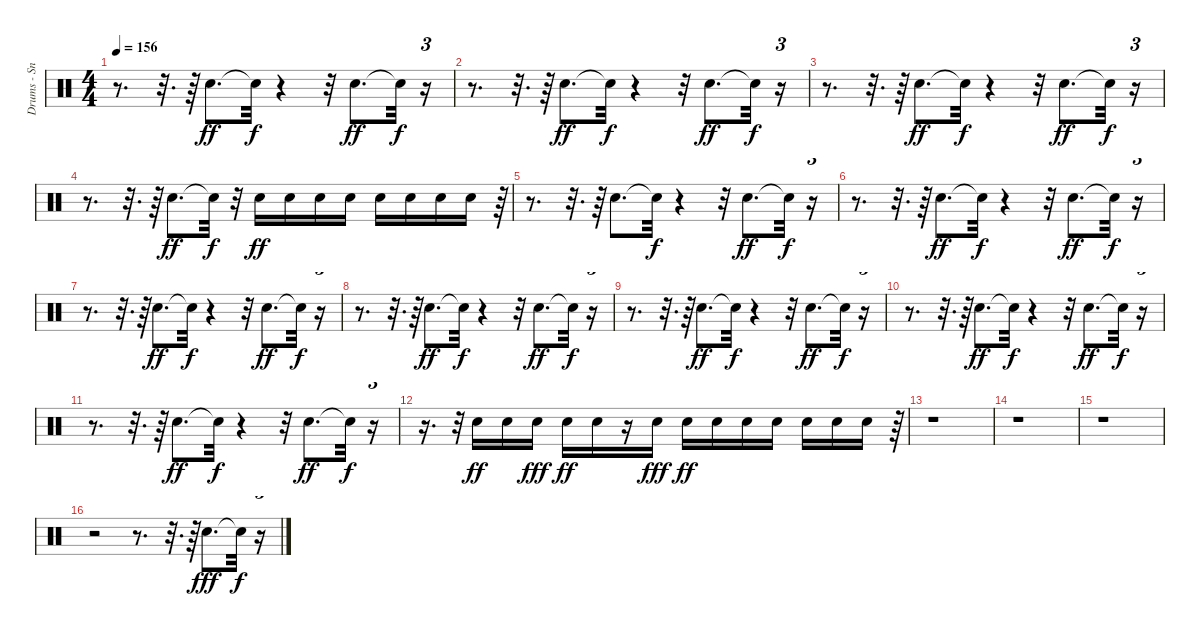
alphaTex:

\track ("Drums - Snare/Toms" "Drums - Sn") {instrument percussion}
\staff {score}
\articulation defaults
\ts (4 4)
\tempo 156
\clef neutral
\ks c
r.8{d dy ff} r.32{d} r.64 "Electric Snare (hit)".8{d} "Snare (hit)"{t}.32{dy f} r.4 r.32 "Electric Snare (hit)".8{d dy ff} "Snare (hit)"{t}.32{dy f} r.16{tu (3 2)} |
r.8{d} r.32{d} r.64 "Electric Snare (hit)".8{d dy ff} "Snare (hit)"{t}.32{dy f} r.4 r.32 "Electric Snare (hit)".8{d dy ff} "Snare (hit)"{t}.32{dy f} r.16{tu (3 2)} |
r.8{d} r.32{d} r.64 "Electric Snare (hit)".8{d dy ff} "Snare (hit)"{t}.32{dy f} r.4 r.32 "Electric Snare (hit)".8{d dy ff} "Snare (hit)"{t}.32{dy f} r.16{tu (3 2)} |
r.8{d} r.32{d} r.64 "Electric Snare (hit)".8{d dy ff} "Snare (hit)"{t}.32{dy f} r.32 "Electric Snare (hit)".16{dy ff} "Electric Snare (hit)".16 "Electric Snare (hit)".16 "Electric Snare (hit)".16 "Electric Snare (hit)".16 "Electric Snare (hit)".16 "Electric Snare (hit)".16 "Electric Snare (hit)".16 r.64{tu (3 2)} |
r.8{d} r.32{d} r.64 "Electric Snare (hit)".8{d} "Snare (hit)"{t}.32{dy f} r.4 r.32 "Electric Snare (hit)".8{d dy ff} "Snare (hit)"{t}.32{dy f} r.16{tu (3 2)} |
r.8{d} r.32{d} r.64 "Electric Snare (hit)".8{d dy ff} "Snare (hit)"{t}.32{dy f} r.4 r.32 "Electric Snare (hit)".8{d dy ff} "Snare (hit)"{t}.32{dy f} r.16{tu (3 2)} |
r.8{d} r.32{d} r.64 "Electric Snare (hit)".8{d dy ff} "Snare (hit)"{t}.32{dy f} r.4 r.32 "Electric Snare (hit)".8{d dy ff} "Snare (hit)"{t}.32{dy f} r.16{tu (3 2)} |
r.8{d} r.32{d} r.64 "Electric Snare (hit)".8{d dy ff} "Snare (hit)"{t}.32{dy f} r.4 r.32 "Electric Snare (hit)".8{d dy ff} "Snare (hit)"{t}.32{dy f} r.16{tu (3 2)} |
r.8{d} r.32{d} r.64 "Electric Snare (hit)".8{d dy ff} "Snare (hit)"{t}.32{dy f} r.4 r.32 "Electric Snare (hit)".8{d dy ff} "Snare (hit)"{t}.32{dy f} r.16{tu (3 2)} |
r.8{d} r.32{d} r.64 "Electric Snare (hit)".8{d dy ff} "Snare (hit)"{t}.32{dy f} r.4 r.32 "Electric Snare (hit)".8{d dy ff} "Snare (hit)"{t}.32{dy f} r.16{tu (3 2)} |
r.8{d} r.32{d} r.64 "Electric Snare (hit)".8{d dy ff} "Snare (hit)"{t}.32{dy f} r.4 r.32 "Electric Snare (hit)".8{d dy ff} "Snare (hit)"{t}.32{dy f} r.16{tu (3 2)} |
r.16{d} r.32{tu (3 2)} "Electric Snare (hit)".16{dy ff} "Electric Snare (hit)".16 "Electric Snare (hit)".16{dy fff} "Electric Snare (hit)".16{dy ff} "Electric Snare (hit)".16 r.16 "Electric Snare (hit)".16{dy fff} "Electric Snare (hit)".16{dy ff} "Electric Snare (hit)".16 "Electric Snare (hit)".16 "Electric Snare (hit)".16 "Electric Snare (hit)".16 "Electric Snare (hit)".16 "Electric Snare (hit)".16 r.64{tu (3 2)} |
r.1 |
r.1 |
r.1 |
r.2 r.8{d} r.32{d} r.64 "Electric Snare (hit)".8{d dy fff} "Snare (hit)"{t}.32{dy f} r.16{tu (3 2)}
